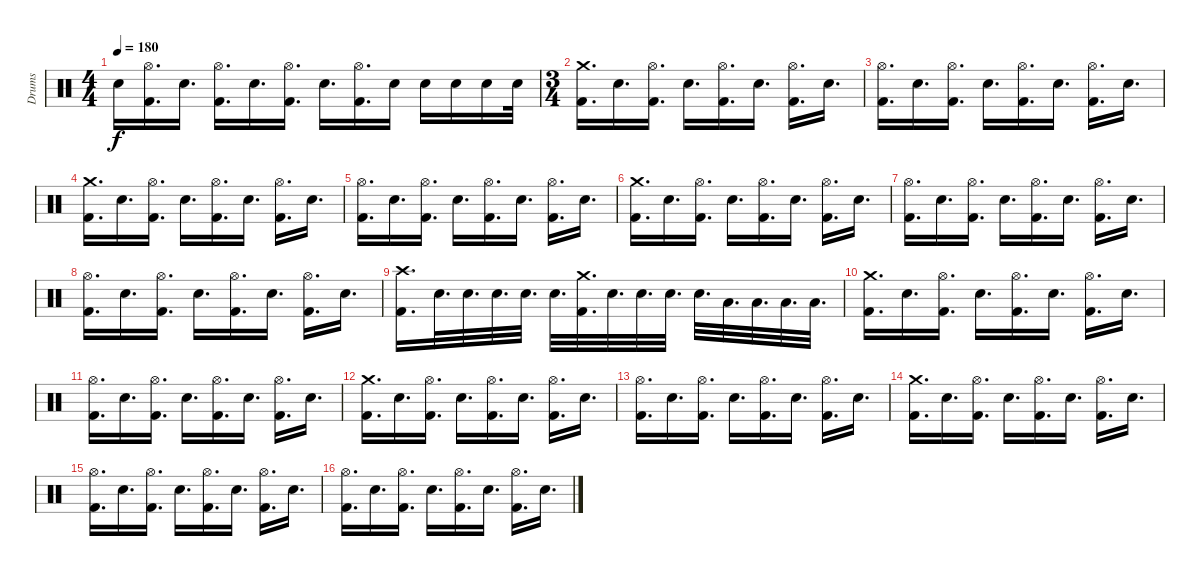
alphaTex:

\track ("Drums" "Drums") {instrument percussion}
\staff {score}
\articulation defaults
\ts (4 4)
\tempo 180
\clef neutral
\ks c "Snare (hit)"{t}.16{dy f}
("Hi-Hat (open)" "Kick (hit) 2").16{d} "Electric Snare (hit)".16{d} ("Hi-Hat (open)" "Kick (hit) 2").16{d} "Electric Snare (hit)".16{d} ("Hi-Hat (open)" "Kick (hit) 2").16{d} "Electric Snare (hit)".16{d} ("Hi-Hat (open)" "Kick (hit) 2").16{d} "Electric Snare (hit)".16 "Electric Snare (hit)".16 "Electric Snare (hit)".16 "Electric Snare (hit)".16 "Electric Snare (hit)".32 |
\ts (3 4)
("Crash medium (hit)" "Kick (hit) 2").16{d} "Electric Snare (hit)".16{d} ("Hi-Hat (open)" "Kick (hit) 2").16{d} "Electric Snare (hit)".16{d} ("Hi-Hat (open)" "Kick (hit) 2").16{d} "Electric Snare (hit)".16{d} ("Hi-Hat (open)" "Kick (hit) 2").16{d} "Electric Snare (hit)".16{d} |
("Hi-Hat (open)" "Kick (hit) 2").16{d} "Electric Snare (hit)".16{d} ("Hi-Hat (open)" "Kick (hit) 2").16{d} "Electric Snare (hit)".16{d} ("Hi-Hat (open)" "Kick (hit) 2").16{d} "Electric Snare (hit)".16{d} ("Hi-Hat (open)" "Kick (hit) 2").16{d} "Electric Snare (hit)".16{d} |
("Crash medium (hit)" "Kick (hit) 2").16{d} "Electric Snare (hit)".16{d} ("Hi-Hat (open)" "Kick (hit) 2").16{d} "Electric Snare (hit)".16{d} ("Hi-Hat (open)" "Kick (hit) 2").16{d} "Electric Snare (hit)".16{d} ("Hi-Hat (open)" "Kick (hit) 2").16{d} "Electric Snare (hit)".16{d} |
("Hi-Hat (open)" "Kick (hit) 2").16{d} "Electric Snare (hit)".16{d} ("Hi-Hat (open)" "Kick (hit) 2").16{d} "Electric Snare (hit)".16{d} ("Hi-Hat (open)" "Kick (hit) 2").16{d} "Electric Snare (hit)".16{d} ("Hi-Hat (open)" "Kick (hit) 2").16{d} "Electric Snare (hit)".16{d} |
("Crash medium (hit)" "Kick (hit) 2").16{d} "Electric Snare (hit)".16{d} ("Hi-Hat (open)" "Kick (hit) 2").16{d} "Electric Snare (hit)".16{d} ("Hi-Hat (open)" "Kick (hit) 2").16{d} "Electric Snare (hit)".16{d} ("Hi-Hat (open)" "Kick (hit) 2").16{d} "Electric Snare (hit)".16{d} |
("Hi-Hat (open)" "Kick (hit) 2").16{d} "Electric Snare (hit)".16{d} ("Hi-Hat (open)" "Kick (hit) 2").16{d} "Electric Snare (hit)".16{d} ("Hi-Hat (open)" "Kick (hit) 2").16{d} "Electric Snare (hit)".16{d} ("Hi-Hat (open)" "Kick (hit) 2").16{d} "Electric Snare (hit)".16{d} |
("Hi-Hat (open)" "Kick (hit) 2").16{d} "Electric Snare (hit)".16{d} ("Hi-Hat (open)" "Kick (hit) 2").16{d} "Electric Snare (hit)".16{d} ("Hi-Hat (open)" "Kick (hit) 2").16{d} "Electric Snare (hit)".16{d} ("Hi-Hat (open)" "Kick (hit) 2").16{d} "Electric Snare (hit)".16{d} |
("Crash high (hit)" "Kick (hit) 2").16{d} "Electric Snare (hit)".32{d} "Electric Snare (hit)".32{d} "Electric Snare (hit)".32{d} "Electric Snare (hit)".32{d} "Electric Snare (hit)".32{d} ("Crash medium (hit)" "Kick (hit) 2").32{d} "Electric Snare (hit)".32{d} "Electric Snare (hit)".32{d} "Electric Snare (hit)".32{d} "Electric Snare (hit)".32{d} "Low Tom (hit)".32{d} "Low Tom (hit)".32{d} "Low Tom (hit)".32{d} "Low Tom (hit)".32{d} |
("Crash medium (hit)" "Kick (hit) 2").16{d} "Electric Snare (hit)".16{d} ("Hi-Hat (open)" "Kick (hit) 2").16{d} "Electric Snare (hit)".16{d} ("Hi-Hat (open)" "Kick (hit) 2").16{d} "Electric Snare (hit)".16{d} ("Hi-Hat (open)" "Kick (hit) 2").16{d} "Electric Snare (hit)".16{d} |
("Hi-Hat (open)" "Kick (hit) 2").16{d} "Electric Snare (hit)".16{d} ("Hi-Hat (open)" "Kick (hit) 2").16{d} "Electric Snare (hit)".16{d} ("Hi-Hat (open)" "Kick (hit) 2").16{d} "Electric Snare (hit)".16{d} ("Hi-Hat (open)" "Kick (hit) 2").16{d} "Electric Snare (hit)".16{d} |
("Crash medium (hit)" "Kick (hit) 2").16{d} "Electric Snare (hit)".16{d} ("Hi-Hat (open)" "Kick (hit) 2").16{d} "Electric Snare (hit)".16{d} ("Hi-Hat (open)" "Kick (hit) 2").16{d} "Electric Snare (hit)".16{d} ("Hi-Hat (open)" "Kick (hit) 2").16{d} "Electric Snare (hit)".16{d} |
("Hi-Hat (open)" "Kick (hit) 2").16{d} "Electric Snare (hit)".16{d} ("Hi-Hat (open)" "Kick (hit) 2").16{d} "Electric Snare (hit)".16{d} ("Hi-Hat (open)" "Kick (hit) 2").16{d} "Electric Snare (hit)".16{d} ("Hi-Hat (open)" "Kick (hit) 2").16{d} "Electric Snare (hit)".16{d} |
("Crash medium (hit)" "Kick (hit) 2").16{d} "Electric Snare (hit)".16{d} ("Hi-Hat (open)" "Kick (hit) 2").16{d} "Electric Snare (hit)".16{d} ("Hi-Hat (open)" "Kick (hit) 2").16{d} "Electric Snare (hit)".16{d} ("Hi-Hat (open)" "Kick (hit) 2").16{d} "Electric Snare (hit)".16{d} |
("Hi-Hat (open)" "Kick (hit) 2").16{d} "Electric Snare (hit)".16{d} ("Hi-Hat (open)" "Kick (hit) 2").16{d} "Electric Snare (hit)".16{d} ("Hi-Hat (open)" "Kick (hit) 2").16{d} "Electric Snare (hit)".16{d} ("Hi-Hat (open)" "Kick (hit) 2").16{d} "Electric Snare (hit)".16{d} |
("Hi-Hat (open)" "Kick (hit) 2").16{d} "Electric Snare (hit)".16{d} ("Hi-Hat (open)" "Kick (hit) 2").16{d} "Electric Snare (hit)".16{d} ("Hi-Hat (open)" "Kick (hit) 2").16{d} "Electric Snare (hit)".16{d} ("Hi-Hat (open)" "Kick (hit) 2").16{d} "Electric Snare (hit)".16{d}
